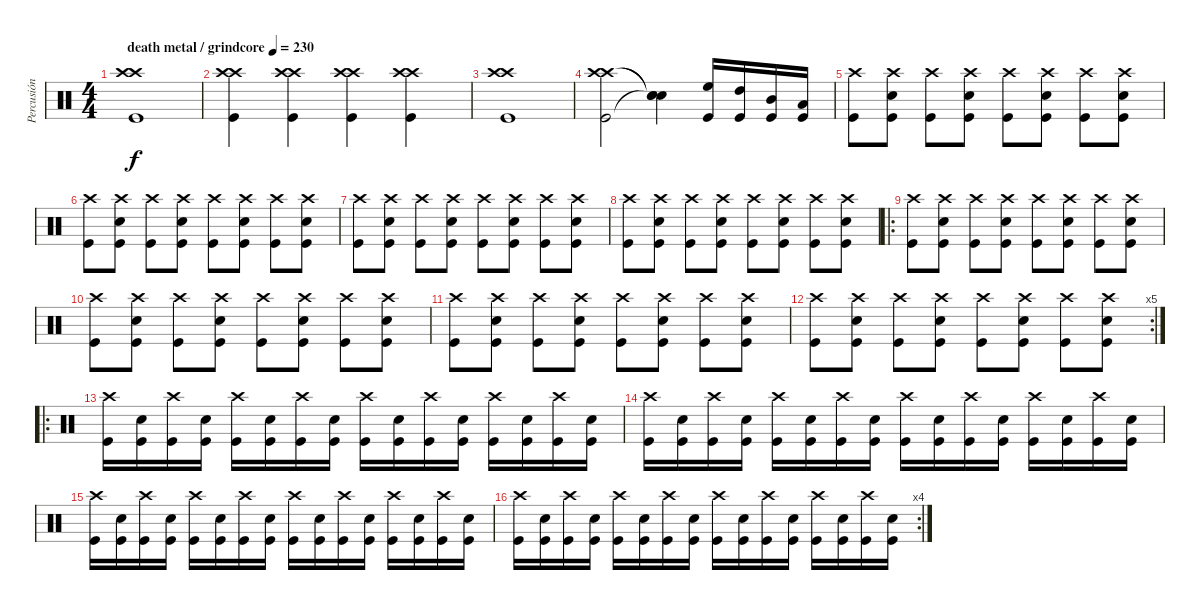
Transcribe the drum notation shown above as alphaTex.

\track ("Percusión" "Percusión") {instrument percussion}
\staff {score}
\articulation defaults
\ts (4 4)
\tempo (230 "death metal / grindcore")
\clef neutral
\ks c
("Crash high (hit)" "Crash high (hit)" "Kick (hit)").1{dy f} |
("Crash high (hit)" "Crash high (hit)" "Kick (hit)").4 ("Crash high (hit)" "Crash high (hit)" "Kick (hit)").4 ("Crash high (hit)" "Crash high (hit)" "Kick (hit)").4 ("Crash high (hit)" "Crash high (hit)" "Kick (hit)").4 |
("Crash high (hit)" "Crash high (hit)" "Kick (hit)").1 |
("Crash high (hit)" "Crash high (hit)" "Kick (hit)").2 ("Snare (hit)"{t} "Snare (hit)"{t} "Snare (hit)"{t}).4 ("High Floor Tom (hit)" "Kick (hit)").16 ("High Tom (hit)" "Kick (hit)").16 ("Mid Tom (hit)" "Kick (hit)").16 ("Low Tom (hit)" "Kick (hit)").16 |
("Crash high (hit)" "Kick (hit)").8 ("Crash high (hit)" "Electric Snare (hit)" "Kick (hit)").8 ("Crash high (hit)" "Kick (hit)").8 ("Crash high (hit)" "Electric Snare (hit)" "Kick (hit)").8 ("Crash high (hit)" "Kick (hit)").8 ("Crash high (hit)" "Electric Snare (hit)" "Kick (hit)").8 ("Crash high (hit)" "Kick (hit)").8 ("Crash high (hit)" "Electric Snare (hit)" "Kick (hit)").8 |
("Crash high (hit)" "Kick (hit)").8 ("Crash high (hit)" "Electric Snare (hit)" "Kick (hit)").8 ("Crash high (hit)" "Kick (hit)").8 ("Crash high (hit)" "Electric Snare (hit)" "Kick (hit)").8 ("Crash high (hit)" "Kick (hit)").8 ("Crash high (hit)" "Electric Snare (hit)" "Kick (hit)").8 ("Crash high (hit)" "Kick (hit)").8 ("Crash high (hit)" "Electric Snare (hit)" "Kick (hit)").8 |
("Crash high (hit)" "Kick (hit)").8 ("Crash high (hit)" "Electric Snare (hit)" "Kick (hit)").8 ("Crash high (hit)" "Kick (hit)").8 ("Crash high (hit)" "Electric Snare (hit)" "Kick (hit)").8 ("Crash high (hit)" "Kick (hit)").8 ("Crash high (hit)" "Electric Snare (hit)" "Kick (hit)").8 ("Crash high (hit)" "Kick (hit)").8 ("Crash high (hit)" "Electric Snare (hit)" "Kick (hit)").8 |
("Crash high (hit)" "Kick (hit)").8 ("Crash high (hit)" "Electric Snare (hit)" "Kick (hit)").8 ("Crash high (hit)" "Kick (hit)").8 ("Crash high (hit)" "Electric Snare (hit)" "Kick (hit)").8 ("Crash high (hit)" "Kick (hit)").8 ("Crash high (hit)" "Electric Snare (hit)" "Kick (hit)").8 ("Crash high (hit)" "Kick (hit)").8 ("Crash high (hit)" "Electric Snare (hit)" "Kick (hit)").8 |
\ro
("Crash high (hit)" "Kick (hit)").8 ("Crash high (hit)" "Electric Snare (hit)" "Kick (hit)").8 ("Crash high (hit)" "Kick (hit)").8 ("Crash high (hit)" "Electric Snare (hit)" "Kick (hit)").8 ("Crash high (hit)" "Kick (hit)").8 ("Crash high (hit)" "Electric Snare (hit)" "Kick (hit)").8 ("Crash high (hit)" "Kick (hit)").8 ("Crash high (hit)" "Electric Snare (hit)" "Kick (hit)").8 |
("Crash high (hit)" "Kick (hit)").8 ("Crash high (hit)" "Electric Snare (hit)" "Kick (hit)").8 ("Crash high (hit)" "Kick (hit)").8 ("Crash high (hit)" "Electric Snare (hit)" "Kick (hit)").8 ("Crash high (hit)" "Kick (hit)").8 ("Crash high (hit)" "Electric Snare (hit)" "Kick (hit)").8 ("Crash high (hit)" "Kick (hit)").8 ("Crash high (hit)" "Electric Snare (hit)" "Kick (hit)").8 |
("Crash high (hit)" "Kick (hit)").8 ("Crash high (hit)" "Electric Snare (hit)" "Kick (hit)").8 ("Crash high (hit)" "Kick (hit)").8 ("Crash high (hit)" "Electric Snare (hit)" "Kick (hit)").8 ("Crash high (hit)" "Kick (hit)").8 ("Crash high (hit)" "Electric Snare (hit)" "Kick (hit)").8 ("Crash high (hit)" "Kick (hit)").8 ("Crash high (hit)" "Electric Snare (hit)" "Kick (hit)").8 |
\rc 5
("Crash high (hit)" "Kick (hit)").8 ("Crash high (hit)" "Electric Snare (hit)" "Kick (hit)").8 ("Crash high (hit)" "Kick (hit)").8 ("Crash high (hit)" "Electric Snare (hit)" "Kick (hit)").8 ("Crash high (hit)" "Kick (hit)").8 ("Crash high (hit)" "Electric Snare (hit)" "Kick (hit)").8 ("Crash high (hit)" "Kick (hit)").8 ("Crash high (hit)" "Electric Snare (hit)" "Kick (hit)").8 |
\ro
("Crash high (hit)" "Kick (hit)").16 ("Electric Snare (hit)" "Kick (hit)").16 ("Crash high (hit)" "Kick (hit)").16 ("Electric Snare (hit)" "Kick (hit)").16 ("Crash high (hit)" "Kick (hit)").16 ("Electric Snare (hit)" "Kick (hit)").16 ("Crash high (hit)" "Kick (hit)").16 ("Electric Snare (hit)" "Kick (hit)").16 ("Crash high (hit)" "Kick (hit)").16 ("Electric Snare (hit)" "Kick (hit)").16 ("Crash high (hit)" "Kick (hit)").16 ("Electric Snare (hit)" "Kick (hit)").16 ("Crash high (hit)" "Kick (hit)").16 ("Electric Snare (hit)" "Kick (hit)").16 ("Crash high (hit)" "Kick (hit)").16 ("Electric Snare (hit)" "Kick (hit)").16 |
("Crash high (hit)" "Kick (hit)").16 ("Electric Snare (hit)" "Kick (hit)").16 ("Crash high (hit)" "Kick (hit)").16 ("Electric Snare (hit)" "Kick (hit)").16 ("Crash high (hit)" "Kick (hit)").16 ("Electric Snare (hit)" "Kick (hit)").16 ("Crash high (hit)" "Kick (hit)").16 ("Electric Snare (hit)" "Kick (hit)").16 ("Crash high (hit)" "Kick (hit)").16 ("Electric Snare (hit)" "Kick (hit)").16 ("Crash high (hit)" "Kick (hit)").16 ("Electric Snare (hit)" "Kick (hit)").16 ("Crash high (hit)" "Kick (hit)").16 ("Electric Snare (hit)" "Kick (hit)").16 ("Crash high (hit)" "Kick (hit)").16 ("Electric Snare (hit)" "Kick (hit)").16 |
("Crash high (hit)" "Kick (hit)").16 ("Electric Snare (hit)" "Kick (hit)").16 ("Crash high (hit)" "Kick (hit)").16 ("Electric Snare (hit)" "Kick (hit)").16 ("Crash high (hit)" "Kick (hit)").16 ("Electric Snare (hit)" "Kick (hit)").16 ("Crash high (hit)" "Kick (hit)").16 ("Electric Snare (hit)" "Kick (hit)").16 ("Crash high (hit)" "Kick (hit)").16 ("Electric Snare (hit)" "Kick (hit)").16 ("Crash high (hit)" "Kick (hit)").16 ("Electric Snare (hit)" "Kick (hit)").16 ("Crash high (hit)" "Kick (hit)").16 ("Electric Snare (hit)" "Kick (hit)").16 ("Crash high (hit)" "Kick (hit)").16 ("Electric Snare (hit)" "Kick (hit)").16 |
\rc 4
("Crash high (hit)" "Kick (hit)").16 ("Electric Snare (hit)" "Kick (hit)").16 ("Crash high (hit)" "Kick (hit)").16 ("Electric Snare (hit)" "Kick (hit)").16 ("Crash high (hit)" "Kick (hit)").16 ("Electric Snare (hit)" "Kick (hit)").16 ("Crash high (hit)" "Kick (hit)").16 ("Electric Snare (hit)" "Kick (hit)").16 ("Crash high (hit)" "Kick (hit)").16 ("Electric Snare (hit)" "Kick (hit)").16 ("Crash high (hit)" "Kick (hit)").16 ("Electric Snare (hit)" "Kick (hit)").16 ("Crash high (hit)" "Kick (hit)").16 ("Electric Snare (hit)" "Kick (hit)").16 ("Crash high (hit)" "Kick (hit)").16 ("Electric Snare (hit)" "Kick (hit)").16
